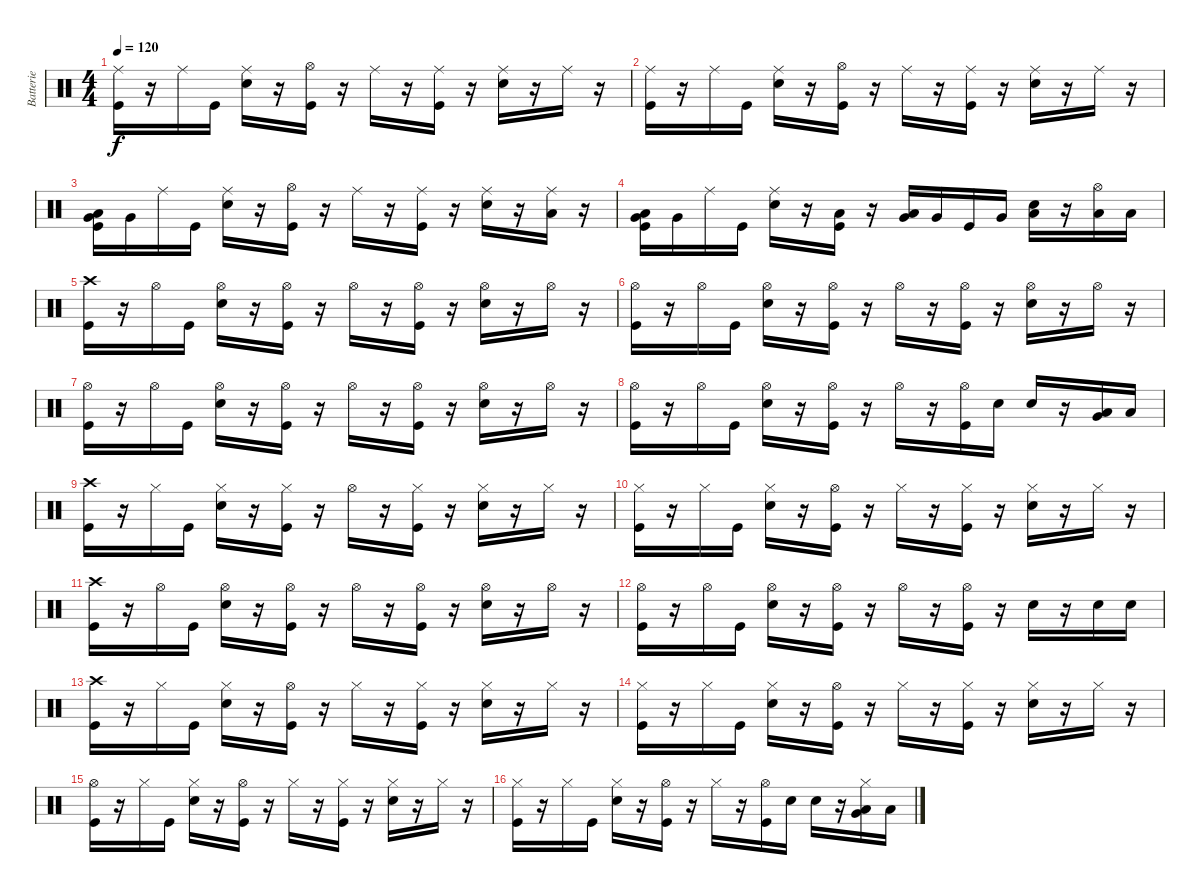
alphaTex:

\track ("Batterie" "Batterie") {instrument percussion}
\staff {score}
\articulation defaults
\ts (4 4)
\tempo 120
\clef neutral
\ks c
("Ride (middle)" "Kick (hit)").16{dy f} r.16 "Ride (middle)".16 "Kick (hit)".16 ("Ride (middle)" "Electric Snare (hit)").16 r.16 ("Hi-Hat (open)" "Kick (hit)").16 r.16 "Ride (middle)".16 r.16 ("Kick (hit)" "Ride (middle)").16 r.16 ("Ride (middle)" "Electric Snare (hit)").16 r.16 "Ride (middle)".16 r.16 |
("Ride (middle)" "Kick (hit)").16 r.16 "Ride (middle)".16 "Kick (hit)".16 ("Ride (middle)" "Electric Snare (hit)").16 r.16 ("Hi-Hat (open)" "Kick (hit)").16 r.16 "Ride (middle)".16 r.16 ("Ride (middle)" "Kick (hit)").16 r.16 ("Ride (middle)" "Electric Snare (hit)").16 r.16 "Ride (middle)".16 r.16 |
("Very Low Tom (hit)" "Low Tom (hit)" "Kick (hit)").16 "Very Low Tom (hit)".16 "Ride (middle)".16 "Kick (hit)".16 ("Ride (middle)" "Electric Snare (hit)").16 r.16 ("Hi-Hat (open)" "Kick (hit)").16 r.16 "Ride (middle)".16 r.16 ("Ride (middle)" "Kick (hit)").16 r.16 ("Electric Snare (hit)" "Ride (middle)").16 r.16 ("Low Floor Tom (hit)" "Ride (middle)").16 r.16 |
("Very Low Tom (hit)" "Low Tom (hit)" "Kick (hit)").16 "Very Low Tom (hit)".16 "Ride (middle)".16 "Kick (hit)".16 ("Electric Snare (hit)" "Ride (middle)").16 r.16 ("Low Floor Tom (hit)" "Kick (hit)").16 r.16 ("Very Low Tom (hit)" "Low Tom (hit)").16 "Very Low Tom (hit)".16 "Kick (hit)".16 "Very Low Tom (hit)".16 ("Low Tom (hit)" "Electric Snare (hit)").16 r.16 ("Low Tom (hit)" "Hi-Hat (open)").16 "Low Tom (hit)".16 |
("Crash high (hit)" "Kick (hit)").16 r.16 "Hi-Hat (open)".16 "Kick (hit)".16 ("Electric Snare (hit)" "Hi-Hat (open)").16 r.16 ("Kick (hit)" "Hi-Hat (open)").16 r.16 "Hi-Hat (open)".16 r.16 ("Hi-Hat (open)" "Kick (hit)").16 r.16 ("Hi-Hat (open)" "Electric Snare (hit)").16 r.16 "Hi-Hat (open)".16 r.16 |
("Kick (hit)" "Hi-Hat (open)").16 r.16 "Hi-Hat (open)".16 "Kick (hit)".16 ("Electric Snare (hit)" "Hi-Hat (open)").16 r.16 ("Hi-Hat (open)" "Kick (hit)").16 r.16 "Hi-Hat (open)".16 r.16 ("Hi-Hat (open)" "Kick (hit)").16 r.16 ("Electric Snare (hit)" "Hi-Hat (open)").16 r.16 "Hi-Hat (open)".16 r.16 |
("Hi-Hat (open)" "Kick (hit)").16 r.16 "Hi-Hat (open)".16 "Kick (hit)".16 ("Electric Snare (hit)" "Hi-Hat (open)").16 r.16 ("Hi-Hat (open)" "Kick (hit)").16 r.16 "Hi-Hat (open)".16 r.16 ("Kick (hit)" "Hi-Hat (open)").16 r.16 ("Electric Snare (hit)" "Hi-Hat (open)").16 r.16 "Hi-Hat (open)".16 r.16 |
("Hi-Hat (open)" "Kick (hit)").16 r.16 "Hi-Hat (open)".16 "Kick (hit)".16 ("Electric Snare (hit)" "Hi-Hat (open)").16 r.16 ("Hi-Hat (open)" "Kick (hit)").16 r.16 "Hi-Hat (open)".16 r.16 ("Hi-Hat (open)" "Kick (hit)").16 "Electric Snare (hit)".16 "Electric Snare (hit)".16 r.16 ("Very Low Tom (hit)" "Low Floor Tom (hit)").16 "Low Floor Tom (hit)".16 |
("Kick (hit)" "Crash high (hit)").16 r.16 "Hi-Hat (closed)".16 "Kick (hit)".16 ("Hi-Hat (closed)" "Electric Snare (hit)").16 r.16 ("Hi-Hat (closed)" "Kick (hit)").16 r.16 "Hi-Hat (open)".16 r.16 ("Kick (hit)" "Hi-Hat (closed)").16 r.16 ("Hi-Hat (closed)" "Electric Snare (hit)").16 r.16 "Hi-Hat (closed)".16 r.16 |
("Hi-Hat (closed)" "Kick (hit)").16 r.16 "Hi-Hat (closed)".16 "Kick (hit)".16 ("Hi-Hat (closed)" "Electric Snare (hit)").16 r.16 ("Hi-Hat (open)" "Kick (hit)").16 r.16 "Hi-Hat (closed)".16 r.16 ("Hi-Hat (closed)" "Kick (hit)").16 r.16 ("Hi-Hat (closed)" "Electric Snare (hit)").16 r.16 "Hi-Hat (closed)".16 r.16 |
("Crash high (hit)" "Kick (hit)").16 r.16 "Hi-Hat (open)".16 "Kick (hit)".16 ("Hi-Hat (open)" "Electric Snare (hit)").16 r.16 ("Hi-Hat (open)" "Kick (hit)").16 r.16 "Hi-Hat (open)".16 r.16 ("Hi-Hat (open)" "Kick (hit)").16 r.16 ("Hi-Hat (open)" "Electric Snare (hit)").16 r.16 "Hi-Hat (open)".16 r.16 |
("Hi-Hat (open)" "Kick (hit)").16 r.16 "Hi-Hat (open)".16 "Kick (hit)".16 ("Hi-Hat (open)" "Electric Snare (hit)").16 r.16 ("Hi-Hat (open)" "Kick (hit)").16 r.16 "Hi-Hat (open)".16 r.16 ("Hi-Hat (open)" "Kick (hit)").16 r.16 "Electric Snare (hit)".16 r.16 "Electric Snare (hit)".16 "Electric Snare (hit)".16 |
("Crash high (hit)" "Kick (hit)").16 r.16 "Hi-Hat (closed)".16 "Kick (hit)".16 ("Hi-Hat (closed)" "Electric Snare (hit)").16 r.16 ("Hi-Hat (open)" "Kick (hit)").16 r.16 "Hi-Hat (closed)".16 r.16 ("Kick (hit)" "Hi-Hat (closed)").16 r.16 ("Hi-Hat (closed)" "Electric Snare (hit)").16 r.16 "Hi-Hat (closed)".16 r.16 |
("Hi-Hat (closed)" "Kick (hit)").16 r.16 "Hi-Hat (closed)".16 "Kick (hit)".16 ("Hi-Hat (closed)" "Electric Snare (hit)").16 r.16 ("Kick (hit)" "Hi-Hat (open)").16 r.16 "Hi-Hat (closed)".16 r.16 ("Kick (hit)" "Hi-Hat (closed)").16 r.16 ("Electric Snare (hit)" "Hi-Hat (closed)").16 r.16 "Hi-Hat (closed)".16 r.16 |
("Hi-Hat (open)" "Kick (hit)").16 r.16 "Hi-Hat (closed)".16 "Kick (hit)".16 ("Electric Snare (hit)" "Hi-Hat (closed)").16 r.16 ("Kick (hit)" "Hi-Hat (open)").16 r.16 "Hi-Hat (closed)".16 r.16 ("Hi-Hat (closed)" "Kick (hit)").16 r.16 ("Electric Snare (hit)" "Hi-Hat (closed)").16 r.16 "Hi-Hat (closed)".16 r.16 |
("Hi-Hat (closed)" "Kick (hit)").16 r.16 "Hi-Hat (closed)".16 "Kick (hit)".16 ("Hi-Hat (closed)" "Electric Snare (hit)").16 r.16 ("Kick (hit)" "Hi-Hat (open)").16 r.16 "Hi-Hat (closed)".16 r.16 ("Kick (hit)" "Hi-Hat (open)").16 "Electric Snare (hit)".16 "Electric Snare (hit)".16 r.16 ("Very Low Tom (hit)" "Low Floor Tom (hit)" "Hi-Hat (closed)").16 "Low Floor Tom (hit)".16
